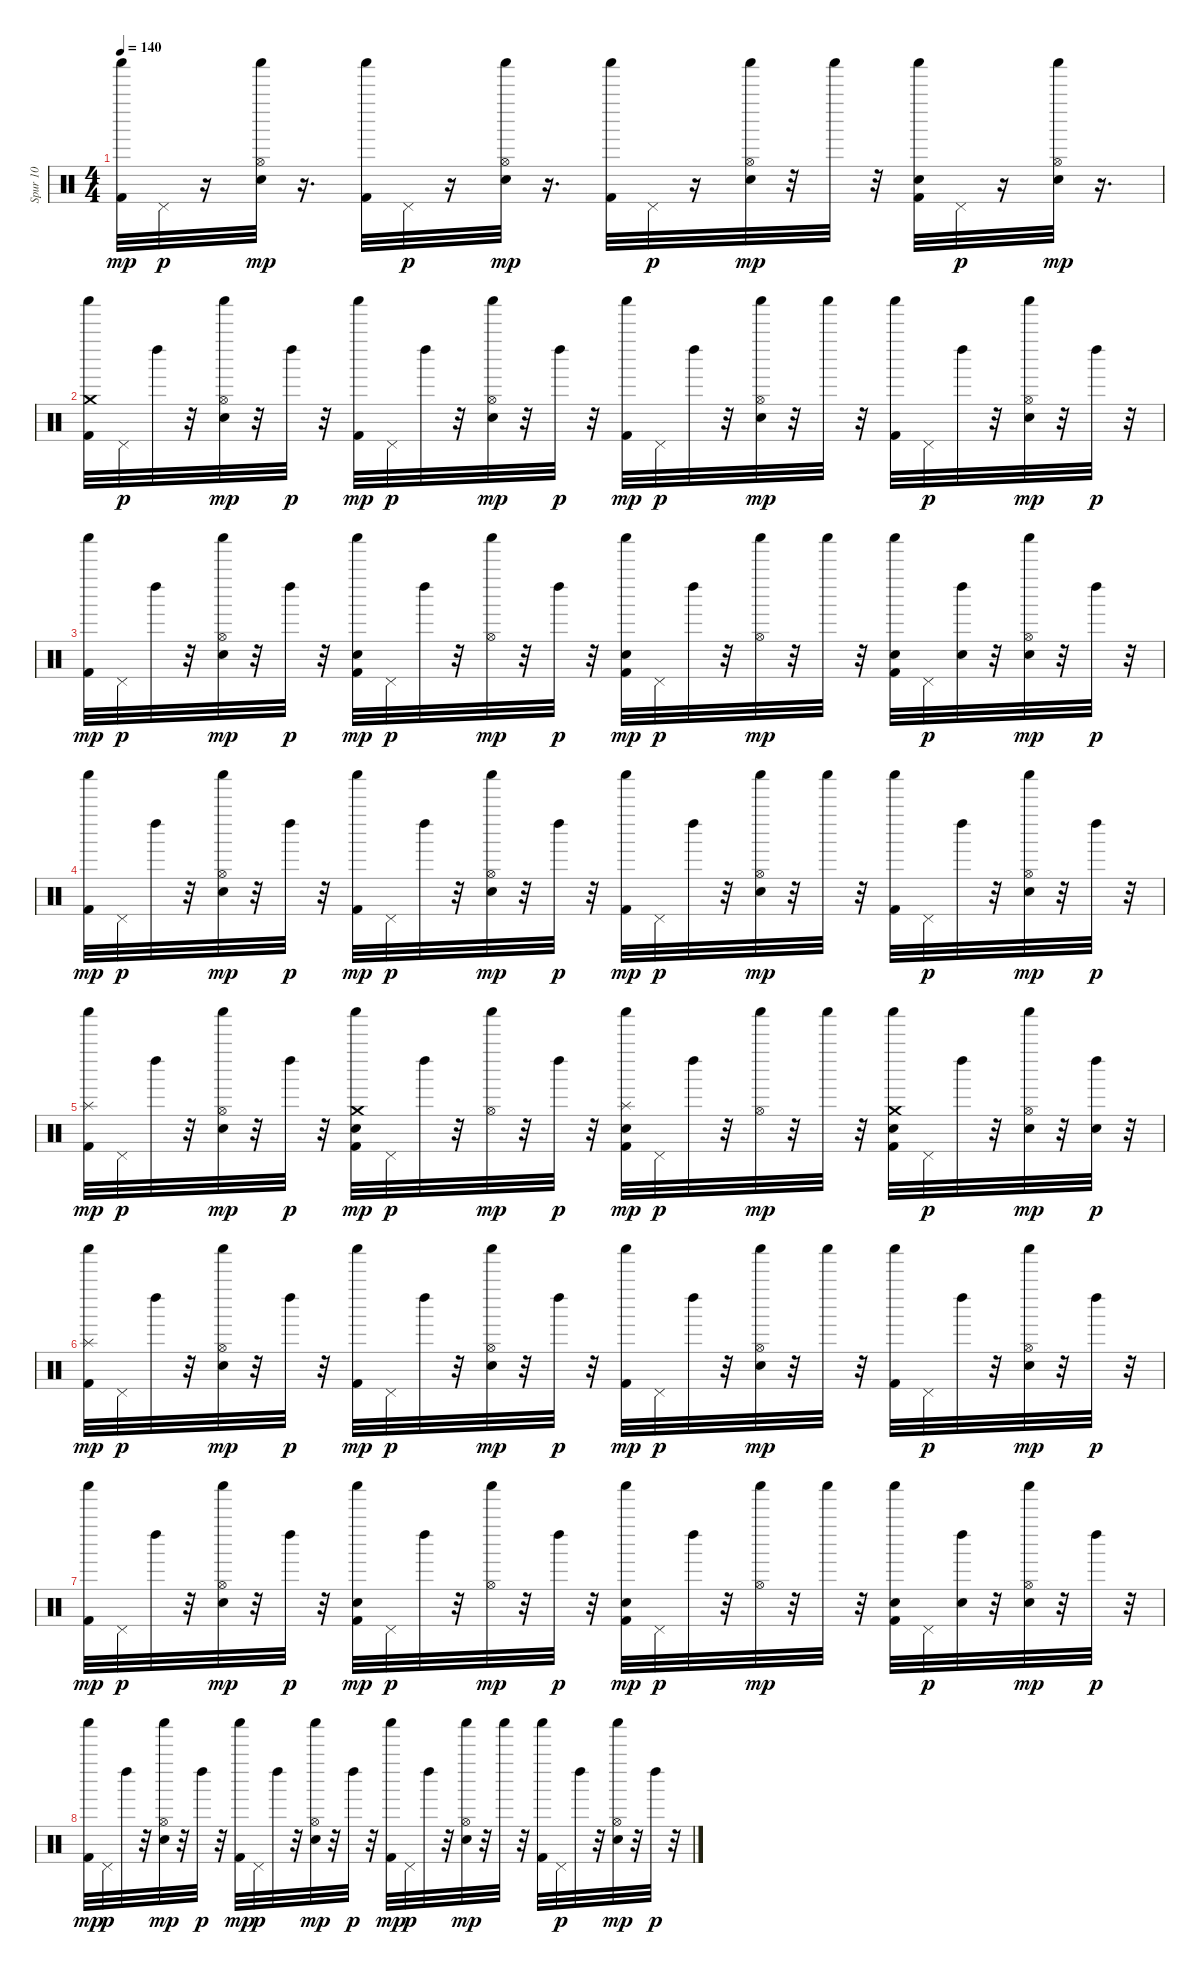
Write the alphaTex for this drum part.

\track ("Spur 10" "Spur 10") {instrument percussion}
\staff {score}
\articulation defaults
\ts (4 4)
\tempo 140
\clef neutral
\ks c
("Kick (hit) 2" "Shaker (hit)").32{dy mp} "Pedal Hi-Hat (hit)".32{dy p} r.16 ("Hand Clap (hit)" "Hi-Hat (open)" "Shaker (hit)").32{dy mp} r.16{d} ("Kick (hit) 2" "Shaker (hit)").32 "Pedal Hi-Hat (hit)".32{dy p} r.16 ("Hand Clap (hit)" "Hi-Hat (open)" "Shaker (hit)").32{dy mp} r.16{d} ("Kick (hit) 2" "Shaker (hit)").32 "Pedal Hi-Hat (hit)".32{dy p} r.16 ("Hand Clap (hit)" "Hi-Hat (open)" "Shaker (hit)").32{dy mp} r.32 "Shaker (hit)".32 r.32 ("Kick (hit) 2" "Hand Clap (hit)" "Shaker (hit)").32 "Pedal Hi-Hat (hit)".32{dy p} r.16 ("Hand Clap (hit)" "Hi-Hat (open)" "Shaker (hit)").32{dy mp} r.16{d} |
("Kick (hit) 2" "Crash medium (hit)" "Shaker (hit)").32 "Pedal Hi-Hat (hit)".32{dy p} "Left Maraca (hit)".32 r.32 ("Hand Clap (hit)" "Hi-Hat (open)" "Shaker (hit)").32{dy mp} r.32 "Left Maraca (hit)".32{dy p} r.32 ("Kick (hit) 2" "Shaker (hit)").32{dy mp} "Pedal Hi-Hat (hit)".32{dy p} "Left Maraca (hit)".32 r.32 ("Hand Clap (hit)" "Hi-Hat (open)" "Shaker (hit)").32{dy mp} r.32 "Left Maraca (hit)".32{dy p} r.32 ("Kick (hit) 2" "Shaker (hit)").32{dy mp} "Pedal Hi-Hat (hit)".32{dy p} "Left Maraca (hit)".32 r.32 ("Hand Clap (hit)" "Hi-Hat (open)" "Shaker (hit)").32{dy mp} r.32 "Shaker (hit)".32 r.32 ("Kick (hit) 2" "Shaker (hit)").32 "Pedal Hi-Hat (hit)".32{dy p} "Left Maraca (hit)".32 r.32 ("Hand Clap (hit)" "Hi-Hat (open)" "Shaker (hit)").32{dy mp} r.32 "Left Maraca (hit)".32{dy p} r.32 |
("Kick (hit) 2" "Shaker (hit)").32{dy mp} "Pedal Hi-Hat (hit)".32{dy p} "Left Maraca (hit)".32 r.32 ("Hand Clap (hit)" "Hi-Hat (open)" "Shaker (hit)").32{dy mp} r.32 "Left Maraca (hit)".32{dy p} r.32 ("Kick (hit) 2" "Hand Clap (hit)" "Shaker (hit)").32{dy mp} "Pedal Hi-Hat (hit)".32{dy p} "Left Maraca (hit)".32 r.32 ("Hi-Hat (open)" "Shaker (hit)").32{dy mp} r.32 "Left Maraca (hit)".32{dy p} r.32 ("Kick (hit) 2" "Hand Clap (hit)" "Shaker (hit)").32{dy mp} "Pedal Hi-Hat (hit)".32{dy p} "Left Maraca (hit)".32 r.32 ("Hi-Hat (open)" "Shaker (hit)").32{dy mp} r.32 "Shaker (hit)".32 r.32 ("Kick (hit) 2" "Hand Clap (hit)" "Shaker (hit)").32 "Pedal Hi-Hat (hit)".32{dy p} ("Hand Clap (hit)" "Left Maraca (hit)").32 r.32 ("Hand Clap (hit)" "Hi-Hat (open)" "Shaker (hit)").32{dy mp} r.32 "Left Maraca (hit)".32{dy p} r.32 |
("Kick (hit) 2" "Shaker (hit)").32{dy mp} "Pedal Hi-Hat (hit)".32{dy p} "Left Maraca (hit)".32 r.32 ("Hand Clap (hit)" "Hi-Hat (open)" "Shaker (hit)").32{dy mp} r.32 "Left Maraca (hit)".32{dy p} r.32 ("Kick (hit) 2" "Shaker (hit)").32{dy mp} "Pedal Hi-Hat (hit)".32{dy p} "Left Maraca (hit)".32 r.32 ("Hand Clap (hit)" "Hi-Hat (open)" "Shaker (hit)").32{dy mp} r.32 "Left Maraca (hit)".32{dy p} r.32 ("Kick (hit) 2" "Shaker (hit)").32{dy mp} "Pedal Hi-Hat (hit)".32{dy p} "Left Maraca (hit)".32 r.32 ("Hand Clap (hit)" "Hi-Hat (open)" "Shaker (hit)").32{dy mp} r.32 "Shaker (hit)".32 r.32 ("Kick (hit) 2" "Shaker (hit)").32 "Pedal Hi-Hat (hit)".32{dy p} "Left Maraca (hit)".32 r.32 ("Hand Clap (hit)" "Hi-Hat (open)" "Shaker (hit)").32{dy mp} r.32 "Left Maraca (hit)".32{dy p} r.32 |
("Kick (hit) 2" "Splash (hit)" "Shaker (hit)").32{dy mp} "Pedal Hi-Hat (hit)".32{dy p} "Left Maraca (hit)".32 r.32 ("Hand Clap (hit)" "Hi-Hat (open)" "Shaker (hit)").32{dy mp} r.32 "Left Maraca (hit)".32{dy p} r.32 ("Kick (hit) 2" "Hand Clap (hit)" "Crash medium (hit)" "Shaker (hit)").32{dy mp} "Pedal Hi-Hat (hit)".32{dy p} "Left Maraca (hit)".32 r.32 ("Hi-Hat (open)" "Shaker (hit)").32{dy mp} r.32 "Left Maraca (hit)".32{dy p} r.32 ("Kick (hit) 2" "Hand Clap (hit)" "Splash (hit)" "Shaker (hit)").32{dy mp} "Pedal Hi-Hat (hit)".32{dy p} "Left Maraca (hit)".32 r.32 ("Hi-Hat (open)" "Shaker (hit)").32{dy mp} r.32 "Shaker (hit)".32 r.32 ("Kick (hit) 2" "Hand Clap (hit)" "Crash medium (hit)" "Shaker (hit)").32 "Pedal Hi-Hat (hit)".32{dy p} "Left Maraca (hit)".32 r.32 ("Hand Clap (hit)" "Hi-Hat (open)" "Shaker (hit)").32{dy mp} r.32 ("Hand Clap (hit)" "Left Maraca (hit)").32{dy p} r.32 |
("Kick (hit) 2" "Splash (hit)" "Shaker (hit)").32{dy mp} "Pedal Hi-Hat (hit)".32{dy p} "Left Maraca (hit)".32 r.32 ("Hand Clap (hit)" "Hi-Hat (open)" "Shaker (hit)").32{dy mp} r.32 "Left Maraca (hit)".32{dy p} r.32 ("Kick (hit) 2" "Shaker (hit)").32{dy mp} "Pedal Hi-Hat (hit)".32{dy p} "Left Maraca (hit)".32 r.32 ("Hand Clap (hit)" "Hi-Hat (open)" "Shaker (hit)").32{dy mp} r.32 "Left Maraca (hit)".32{dy p} r.32 ("Kick (hit) 2" "Shaker (hit)").32{dy mp} "Pedal Hi-Hat (hit)".32{dy p} "Left Maraca (hit)".32 r.32 ("Hand Clap (hit)" "Hi-Hat (open)" "Shaker (hit)").32{dy mp} r.32 "Shaker (hit)".32 r.32 ("Kick (hit) 2" "Shaker (hit)").32 "Pedal Hi-Hat (hit)".32{dy p} "Left Maraca (hit)".32 r.32 ("Hand Clap (hit)" "Hi-Hat (open)" "Shaker (hit)").32{dy mp} r.32 "Left Maraca (hit)".32{dy p} r.32 |
("Kick (hit) 2" "Shaker (hit)").32{dy mp} "Pedal Hi-Hat (hit)".32{dy p} "Left Maraca (hit)".32 r.32 ("Hand Clap (hit)" "Hi-Hat (open)" "Shaker (hit)").32{dy mp} r.32 "Left Maraca (hit)".32{dy p} r.32 ("Kick (hit) 2" "Hand Clap (hit)" "Shaker (hit)").32{dy mp} "Pedal Hi-Hat (hit)".32{dy p} "Left Maraca (hit)".32 r.32 ("Hi-Hat (open)" "Shaker (hit)").32{dy mp} r.32 "Left Maraca (hit)".32{dy p} r.32 ("Kick (hit) 2" "Hand Clap (hit)" "Shaker (hit)").32{dy mp} "Pedal Hi-Hat (hit)".32{dy p} "Left Maraca (hit)".32 r.32 ("Hi-Hat (open)" "Shaker (hit)").32{dy mp} r.32 "Shaker (hit)".32 r.32 ("Kick (hit) 2" "Hand Clap (hit)" "Shaker (hit)").32 "Pedal Hi-Hat (hit)".32{dy p} ("Hand Clap (hit)" "Left Maraca (hit)").32 r.32 ("Hand Clap (hit)" "Hi-Hat (open)" "Shaker (hit)").32{dy mp} r.32 "Left Maraca (hit)".32{dy p} r.32 |
("Kick (hit) 2" "Shaker (hit)").32{dy mp} "Pedal Hi-Hat (hit)".32{dy p} "Left Maraca (hit)".32 r.32 ("Hand Clap (hit)" "Hi-Hat (open)" "Shaker (hit)").32{dy mp} r.32 "Left Maraca (hit)".32{dy p} r.32 ("Kick (hit) 2" "Shaker (hit)").32{dy mp} "Pedal Hi-Hat (hit)".32{dy p} "Left Maraca (hit)".32 r.32 ("Hand Clap (hit)" "Hi-Hat (open)" "Shaker (hit)").32{dy mp} r.32 "Left Maraca (hit)".32{dy p} r.32 ("Kick (hit) 2" "Shaker (hit)").32{dy mp} "Pedal Hi-Hat (hit)".32{dy p} "Left Maraca (hit)".32 r.32 ("Hand Clap (hit)" "Hi-Hat (open)" "Shaker (hit)").32{dy mp} r.32 "Shaker (hit)".32 r.32 ("Kick (hit) 2" "Shaker (hit)").32 "Pedal Hi-Hat (hit)".32{dy p} "Left Maraca (hit)".32 r.32 ("Hand Clap (hit)" "Hi-Hat (open)" "Shaker (hit)").32{dy mp} r.32 "Left Maraca (hit)".32{dy p} r.32
